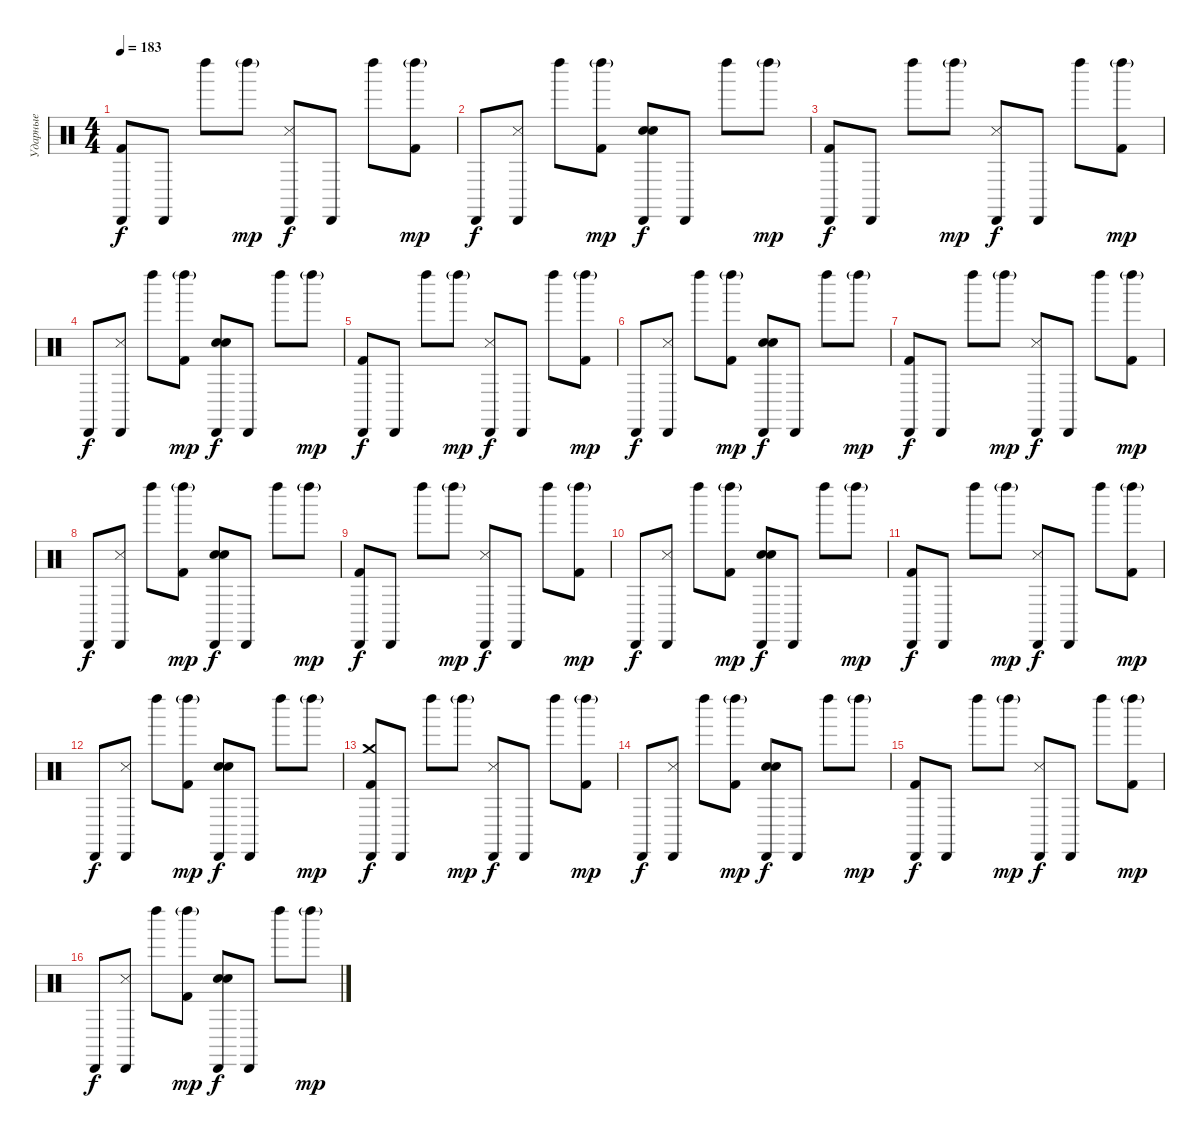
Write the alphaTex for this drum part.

\track ("Ударные" "Ударные") {instrument percussion}
\staff {score}
\articulation defaults
\ts (4 4)
\tempo 183
\clef neutral
\ks c
("Kick (hit) 2" "Cabasa (hit)").8{dy f} "Cabasa (hit)".8 "Left Maraca (hit)".8 "Left Maraca (hit)"{g}.8{dy mp} ("Snare (side stick) 3" "Cabasa (hit)").8{dy f} "Cabasa (hit)".8 "Left Maraca (hit)".8 ("Kick (hit) 2" "Left Maraca (hit)"{g}).8{dy mp} |
"Cabasa (hit)".8{dy f} ("Snare (side stick) 3" "Cabasa (hit)").8 "Left Maraca (hit)".8 ("Kick (hit) 2" "Left Maraca (hit)"{g}).8{dy mp} ("Hand Clap (hit)" "Snare (hit) 2" "Cabasa (hit)").8{dy f} "Cabasa (hit)".8 "Left Maraca (hit)".8 "Left Maraca (hit)"{g}.8{dy mp} |
("Kick (hit) 2" "Cabasa (hit)").8{dy f} "Cabasa (hit)".8 "Left Maraca (hit)".8 "Left Maraca (hit)"{g}.8{dy mp} ("Snare (side stick) 3" "Cabasa (hit)").8{dy f} "Cabasa (hit)".8 "Left Maraca (hit)".8 ("Kick (hit) 2" "Left Maraca (hit)"{g}).8{dy mp} |
"Cabasa (hit)".8{dy f} ("Snare (side stick) 3" "Cabasa (hit)").8 "Left Maraca (hit)".8 ("Kick (hit) 2" "Left Maraca (hit)"{g}).8{dy mp} ("Hand Clap (hit)" "Snare (hit) 2" "Cabasa (hit)").8{dy f} "Cabasa (hit)".8 "Left Maraca (hit)".8 "Left Maraca (hit)"{g}.8{dy mp} |
("Kick (hit) 2" "Cabasa (hit)").8{dy f} "Cabasa (hit)".8 "Left Maraca (hit)".8 "Left Maraca (hit)"{g}.8{dy mp} ("Snare (side stick) 3" "Cabasa (hit)").8{dy f} "Cabasa (hit)".8 "Left Maraca (hit)".8 ("Kick (hit) 2" "Left Maraca (hit)"{g}).8{dy mp} |
"Cabasa (hit)".8{dy f} ("Snare (side stick) 3" "Cabasa (hit)").8 "Left Maraca (hit)".8 ("Kick (hit) 2" "Left Maraca (hit)"{g}).8{dy mp} ("Hand Clap (hit)" "Snare (hit) 2" "Cabasa (hit)").8{dy f} "Cabasa (hit)".8 "Left Maraca (hit)".8 "Left Maraca (hit)"{g}.8{dy mp} |
("Kick (hit) 2" "Cabasa (hit)").8{dy f} "Cabasa (hit)".8 "Left Maraca (hit)".8 "Left Maraca (hit)"{g}.8{dy mp} ("Snare (side stick) 3" "Cabasa (hit)").8{dy f} "Cabasa (hit)".8 "Left Maraca (hit)".8 ("Kick (hit) 2" "Left Maraca (hit)"{g}).8{dy mp} |
"Cabasa (hit)".8{dy f} ("Snare (side stick) 3" "Cabasa (hit)").8 "Left Maraca (hit)".8 ("Kick (hit) 2" "Left Maraca (hit)"{g}).8{dy mp} ("Hand Clap (hit)" "Snare (hit) 2" "Cabasa (hit)").8{dy f} "Cabasa (hit)".8 "Left Maraca (hit)".8 "Left Maraca (hit)"{g}.8{dy mp} |
("Kick (hit) 2" "Cabasa (hit)").8{dy f} "Cabasa (hit)".8 "Left Maraca (hit)".8 "Left Maraca (hit)"{g}.8{dy mp} ("Snare (side stick) 3" "Cabasa (hit)").8{dy f} "Cabasa (hit)".8 "Left Maraca (hit)".8 ("Kick (hit) 2" "Left Maraca (hit)"{g}).8{dy mp} |
"Cabasa (hit)".8{dy f} ("Snare (side stick) 3" "Cabasa (hit)").8 "Left Maraca (hit)".8 ("Kick (hit) 2" "Left Maraca (hit)"{g}).8{dy mp} ("Hand Clap (hit)" "Snare (hit) 2" "Cabasa (hit)").8{dy f} "Cabasa (hit)".8 "Left Maraca (hit)".8 "Left Maraca (hit)"{g}.8{dy mp} |
("Kick (hit) 2" "Cabasa (hit)").8{dy f} "Cabasa (hit)".8 "Left Maraca (hit)".8 "Left Maraca (hit)"{g}.8{dy mp} ("Snare (side stick) 3" "Cabasa (hit)").8{dy f} "Cabasa (hit)".8 "Left Maraca (hit)".8 ("Kick (hit) 2" "Left Maraca (hit)"{g}).8{dy mp} |
"Cabasa (hit)".8{dy f} ("Snare (side stick) 3" "Cabasa (hit)").8 "Left Maraca (hit)".8 ("Kick (hit) 2" "Left Maraca (hit)"{g}).8{dy mp} ("Hand Clap (hit)" "Snare (hit) 2" "Cabasa (hit)").8{dy f} "Cabasa (hit)".8 "Left Maraca (hit)".8 "Left Maraca (hit)"{g}.8{dy mp} |
("Kick (hit) 2" "Crash medium (hit)" "Cabasa (hit)").8{dy f} "Cabasa (hit)".8 "Left Maraca (hit)".8 "Left Maraca (hit)"{g}.8{dy mp} ("Snare (side stick) 3" "Cabasa (hit)").8{dy f} "Cabasa (hit)".8 "Left Maraca (hit)".8 ("Kick (hit) 2" "Left Maraca (hit)"{g}).8{dy mp} |
"Cabasa (hit)".8{dy f} ("Snare (side stick) 3" "Cabasa (hit)").8 "Left Maraca (hit)".8 ("Kick (hit) 2" "Left Maraca (hit)"{g}).8{dy mp} ("Hand Clap (hit)" "Snare (hit) 2" "Cabasa (hit)").8{dy f} "Cabasa (hit)".8 "Left Maraca (hit)".8 "Left Maraca (hit)"{g}.8{dy mp} |
("Kick (hit) 2" "Cabasa (hit)").8{dy f} "Cabasa (hit)".8 "Left Maraca (hit)".8 "Left Maraca (hit)"{g}.8{dy mp} ("Snare (side stick) 3" "Cabasa (hit)").8{dy f} "Cabasa (hit)".8 "Left Maraca (hit)".8 ("Kick (hit) 2" "Left Maraca (hit)"{g}).8{dy mp} |
"Cabasa (hit)".8{dy f} ("Snare (side stick) 3" "Cabasa (hit)").8 "Left Maraca (hit)".8 ("Kick (hit) 2" "Left Maraca (hit)"{g}).8{dy mp} ("Hand Clap (hit)" "Snare (hit) 2" "Cabasa (hit)").8{dy f} "Cabasa (hit)".8 "Left Maraca (hit)".8 "Left Maraca (hit)"{g}.8{dy mp}
